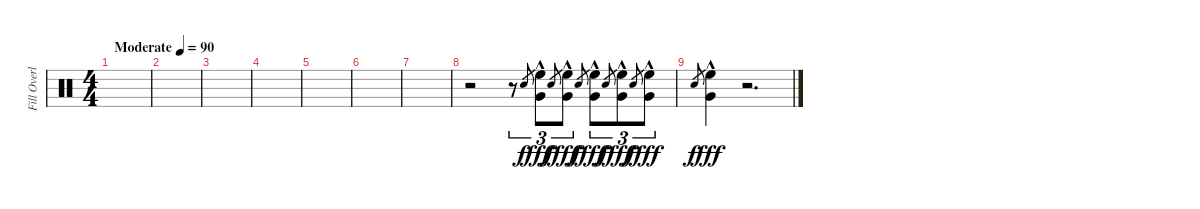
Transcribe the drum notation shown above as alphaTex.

\track ("Fill Overlay" "Fill Overl") {instrument percussion}
\staff {score}
\articulation defaults
\ts (4 4)
\tempo (90 "Moderate")
\clef neutral
\ks c
|
|
|
|
|
|
|
r.2 r.8{tu (3 2)} "Snare (hit)".8{gr} ("High Floor Tom (hit)"{hac} "Very Low Tom (hit)").8{tu (3 2) dy fff} "Snare (hit)".8{gr dy f} ("High Floor Tom (hit)"{hac} "Very Low Tom (hit)").8{tu (3 2) dy fff} "Snare (hit)".8{gr dy f} ("High Floor Tom (hit)"{hac} "Very Low Tom (hit)").8{tu (3 2) dy fff} "Snare (hit)".8{gr dy f} ("High Floor Tom (hit)"{hac} "Very Low Tom (hit)").8{tu (3 2) dy fff} "Snare (hit)".8{gr dy f} ("High Floor Tom (hit)"{hac} "Very Low Tom (hit)").8{tu (3 2) dy fff} |
"Snare (hit)".8{gr dy f} ("High Floor Tom (hit)"{hac} "Very Low Tom (hit)").4{dy fff} r.2{d}
